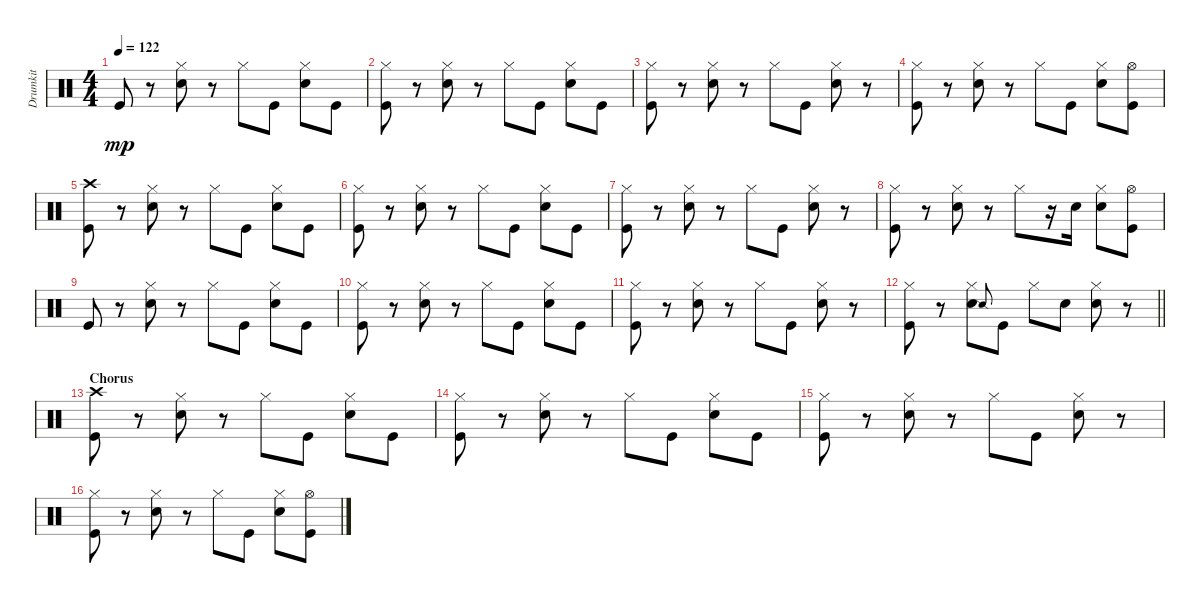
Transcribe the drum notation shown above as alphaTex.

\track ("Drumkit" "Drumkit") {instrument percussion}
\staff {score}
\articulation defaults
\ts (4 4)
\tempo 122
\clef neutral
\ks c "Kick (hit)".8{dy mp}
r.8 ("Snare (hit) 2" "Hi-Hat (closed)").8 r.8 "Hi-Hat (closed)".8 "Kick (hit)".8 ("Snare (hit) 2" "Hi-Hat (closed)").8 "Kick (hit)".8 |
("Kick (hit)" "Hi-Hat (closed)").8 r.8 ("Snare (hit) 2" "Hi-Hat (closed)").8 r.8 "Hi-Hat (closed)".8 "Kick (hit)".8 ("Snare (hit) 2" "Hi-Hat (closed)").8 "Kick (hit)".8 |
("Kick (hit)" "Hi-Hat (closed)").8 r.8 ("Snare (hit) 2" "Hi-Hat (closed)").8 r.8 "Hi-Hat (closed)".8 "Kick (hit)".8 ("Snare (hit) 2" "Hi-Hat (closed)").8 r.8 |
("Kick (hit)" "Hi-Hat (closed)").8 r.8 ("Snare (hit) 2" "Hi-Hat (closed)").8 r.8 "Hi-Hat (closed)".8 "Kick (hit)".8 ("Snare (hit) 2" "Hi-Hat (closed)").8 ("Kick (hit)" "Hi-Hat (open)").8 |
("Kick (hit)" "Crash high (hit)").8 r.8 ("Snare (hit) 2" "Hi-Hat (closed)").8 r.8 "Hi-Hat (closed)".8 "Kick (hit)".8 ("Snare (hit) 2" "Hi-Hat (closed)").8 "Kick (hit)".8 |
("Kick (hit)" "Hi-Hat (closed)").8 r.8 ("Snare (hit) 2" "Hi-Hat (closed)").8 r.8 "Hi-Hat (closed)".8 "Kick (hit)".8 ("Snare (hit) 2" "Hi-Hat (closed)").8 "Kick (hit)".8 |
("Kick (hit)" "Hi-Hat (closed)").8 r.8 ("Snare (hit) 2" "Hi-Hat (closed)").8 r.8 "Hi-Hat (closed)".8 "Kick (hit)".8 ("Snare (hit) 2" "Hi-Hat (closed)").8 r.8 |
("Kick (hit)" "Hi-Hat (closed)").8 r.8 ("Snare (hit) 2" "Hi-Hat (closed)").8 r.8 "Hi-Hat (closed)".8 r.16 "Snare (hit) 2".16 ("Hi-Hat (closed)" "Snare (hit) 2").8 ("Kick (hit)" "Hi-Hat (open)").8 |
"Kick (hit)".8 r.8 ("Snare (hit) 2" "Hi-Hat (closed)").8 r.8 "Hi-Hat (closed)".8 "Kick (hit)".8 ("Snare (hit) 2" "Hi-Hat (closed)").8 "Kick (hit)".8 |
("Kick (hit)" "Hi-Hat (closed)").8 r.8 ("Snare (hit) 2" "Hi-Hat (closed)").8 r.8 "Hi-Hat (closed)".8 "Kick (hit)".8 ("Snare (hit) 2" "Hi-Hat (closed)").8 "Kick (hit)".8 |
("Kick (hit)" "Hi-Hat (closed)").8 r.8 ("Snare (hit) 2" "Hi-Hat (closed)").8 r.8 "Hi-Hat (closed)".8 "Kick (hit)".8 ("Snare (hit) 2" "Hi-Hat (closed)").8 r.8 |
\barLineRight lightlight
("Kick (hit)" "Hi-Hat (closed)").8 r.8 ("Snare (hit) 2" "Hi-Hat (closed)").8 "Snare (side stick) 2".8{gr onbeat} "Kick (hit)".8 "Hi-Hat (closed)".8 "Snare (hit) 2".8 ("Snare (hit) 2" "Hi-Hat (closed)").8 r.8 |
\section ("" "Chorus")
("Kick (hit)" "Crash high (hit)").8 r.8 ("Snare (hit) 2" "Hi-Hat (closed)").8 r.8 "Hi-Hat (closed)".8 "Kick (hit)".8 ("Snare (hit) 2" "Hi-Hat (closed)").8 "Kick (hit)".8 |
("Kick (hit)" "Hi-Hat (closed)").8 r.8 ("Snare (hit) 2" "Hi-Hat (closed)").8 r.8 "Hi-Hat (closed)".8 "Kick (hit)".8 ("Snare (hit) 2" "Hi-Hat (closed)").8 "Kick (hit)".8 |
("Kick (hit)" "Hi-Hat (closed)").8 r.8 ("Snare (hit) 2" "Hi-Hat (closed)").8 r.8 "Hi-Hat (closed)".8 "Kick (hit)".8 ("Snare (hit) 2" "Hi-Hat (closed)").8 r.8 |
("Kick (hit)" "Hi-Hat (closed)").8 r.8 ("Snare (hit) 2" "Hi-Hat (closed)").8 r.8 "Hi-Hat (closed)".8 "Kick (hit)".8 ("Snare (hit) 2" "Hi-Hat (closed)").8 ("Kick (hit)" "Hi-Hat (open)").8
